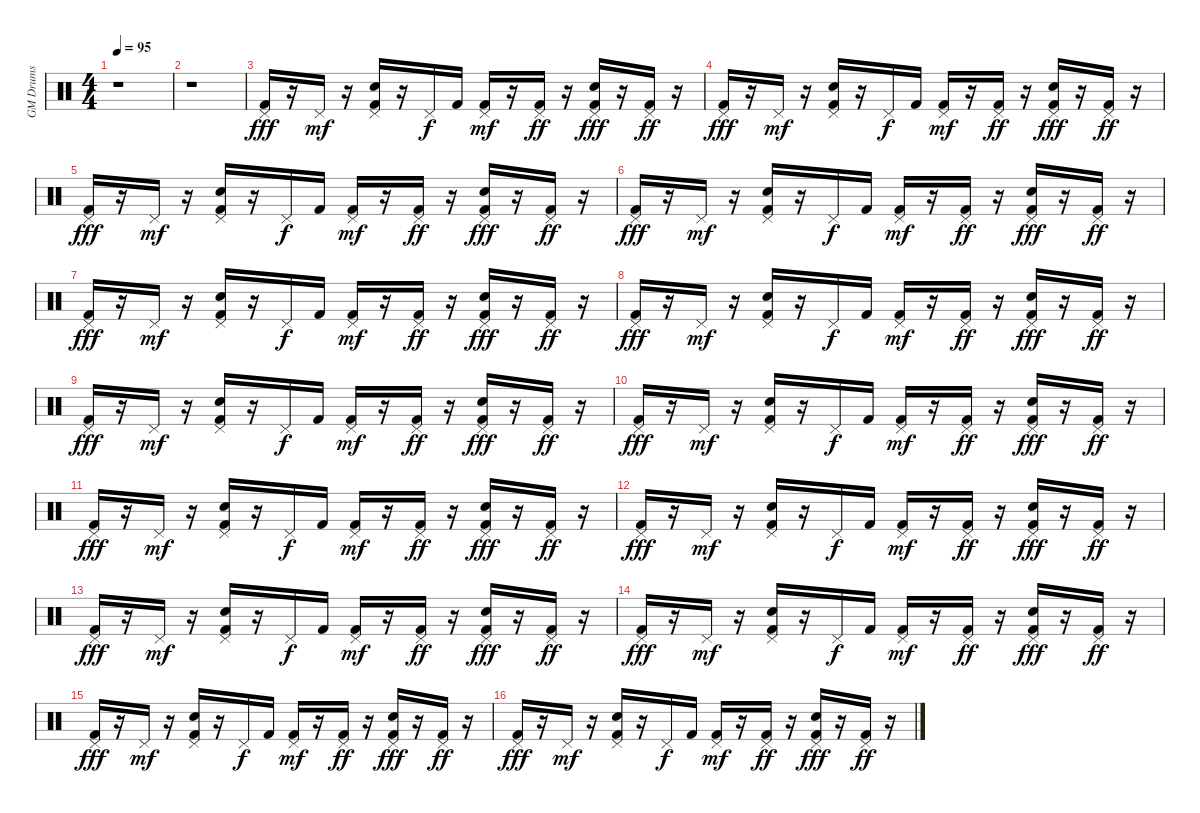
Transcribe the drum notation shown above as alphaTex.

\track ("GM Drums" "GM Drums") {instrument percussion}
\staff {score}
\articulation defaults
\ts (4 4)
\tempo 95
\clef neutral
\ks c
r.1{dy f} |
r.1 |
("Kick (hit) 2" "Pedal Hi-Hat (hit)").16{dy fff} r.16 "Pedal Hi-Hat (hit)".16{dy mf} r.16 ("Kick (hit) 2" "Hand Clap (hit)" "Pedal Hi-Hat (hit)").16 r.16 "Pedal Hi-Hat (hit)".16{dy f} "Kick (hit) 2".16 ("Kick (hit) 2" "Pedal Hi-Hat (hit)").16{dy mf} r.16 ("Kick (hit) 2" "Pedal Hi-Hat (hit)").16{dy ff} r.16 ("Kick (hit) 2" "Hand Clap (hit)" "Pedal Hi-Hat (hit)").16{dy fff} r.16 ("Kick (hit) 2" "Pedal Hi-Hat (hit)").16{dy ff} r.16 |
("Kick (hit) 2" "Pedal Hi-Hat (hit)").16{dy fff} r.16 "Pedal Hi-Hat (hit)".16{dy mf} r.16 ("Kick (hit) 2" "Hand Clap (hit)" "Pedal Hi-Hat (hit)").16 r.16 "Pedal Hi-Hat (hit)".16{dy f} "Kick (hit) 2".16 ("Kick (hit) 2" "Pedal Hi-Hat (hit)").16{dy mf} r.16 ("Kick (hit) 2" "Pedal Hi-Hat (hit)").16{dy ff} r.16 ("Kick (hit) 2" "Hand Clap (hit)" "Pedal Hi-Hat (hit)").16{dy fff} r.16 ("Kick (hit) 2" "Pedal Hi-Hat (hit)").16{dy ff} r.16 |
("Kick (hit) 2" "Pedal Hi-Hat (hit)").16{dy fff} r.16 "Pedal Hi-Hat (hit)".16{dy mf} r.16 ("Kick (hit) 2" "Hand Clap (hit)" "Pedal Hi-Hat (hit)").16 r.16 "Pedal Hi-Hat (hit)".16{dy f} "Kick (hit) 2".16 ("Kick (hit) 2" "Pedal Hi-Hat (hit)").16{dy mf} r.16 ("Kick (hit) 2" "Pedal Hi-Hat (hit)").16{dy ff} r.16 ("Kick (hit) 2" "Hand Clap (hit)" "Pedal Hi-Hat (hit)").16{dy fff} r.16 ("Kick (hit) 2" "Pedal Hi-Hat (hit)").16{dy ff} r.16 |
("Kick (hit) 2" "Pedal Hi-Hat (hit)").16{dy fff} r.16 "Pedal Hi-Hat (hit)".16{dy mf} r.16 ("Kick (hit) 2" "Hand Clap (hit)" "Pedal Hi-Hat (hit)").16 r.16 "Pedal Hi-Hat (hit)".16{dy f} "Kick (hit) 2".16 ("Kick (hit) 2" "Pedal Hi-Hat (hit)").16{dy mf} r.16 ("Kick (hit) 2" "Pedal Hi-Hat (hit)").16{dy ff} r.16 ("Kick (hit) 2" "Hand Clap (hit)" "Pedal Hi-Hat (hit)").16{dy fff} r.16 ("Kick (hit) 2" "Pedal Hi-Hat (hit)").16{dy ff} r.16 |
("Kick (hit) 2" "Pedal Hi-Hat (hit)").16{dy fff} r.16 "Pedal Hi-Hat (hit)".16{dy mf} r.16 ("Kick (hit) 2" "Hand Clap (hit)" "Pedal Hi-Hat (hit)").16 r.16 "Pedal Hi-Hat (hit)".16{dy f} "Kick (hit) 2".16 ("Kick (hit) 2" "Pedal Hi-Hat (hit)").16{dy mf} r.16 ("Kick (hit) 2" "Pedal Hi-Hat (hit)").16{dy ff} r.16 ("Kick (hit) 2" "Hand Clap (hit)" "Pedal Hi-Hat (hit)").16{dy fff} r.16 ("Kick (hit) 2" "Pedal Hi-Hat (hit)").16{dy ff} r.16 |
("Kick (hit) 2" "Pedal Hi-Hat (hit)").16{dy fff} r.16 "Pedal Hi-Hat (hit)".16{dy mf} r.16 ("Kick (hit) 2" "Hand Clap (hit)" "Pedal Hi-Hat (hit)").16 r.16 "Pedal Hi-Hat (hit)".16{dy f} "Kick (hit) 2".16 ("Kick (hit) 2" "Pedal Hi-Hat (hit)").16{dy mf} r.16 ("Kick (hit) 2" "Pedal Hi-Hat (hit)").16{dy ff} r.16 ("Kick (hit) 2" "Hand Clap (hit)" "Pedal Hi-Hat (hit)").16{dy fff} r.16 ("Kick (hit) 2" "Pedal Hi-Hat (hit)").16{dy ff} r.16 |
("Kick (hit) 2" "Pedal Hi-Hat (hit)").16{dy fff} r.16 "Pedal Hi-Hat (hit)".16{dy mf} r.16 ("Kick (hit) 2" "Hand Clap (hit)" "Pedal Hi-Hat (hit)").16 r.16 "Pedal Hi-Hat (hit)".16{dy f} "Kick (hit) 2".16 ("Kick (hit) 2" "Pedal Hi-Hat (hit)").16{dy mf} r.16 ("Kick (hit) 2" "Pedal Hi-Hat (hit)").16{dy ff} r.16 ("Kick (hit) 2" "Hand Clap (hit)" "Pedal Hi-Hat (hit)").16{dy fff} r.16 ("Kick (hit) 2" "Pedal Hi-Hat (hit)").16{dy ff} r.16 |
("Kick (hit) 2" "Pedal Hi-Hat (hit)").16{dy fff} r.16 "Pedal Hi-Hat (hit)".16{dy mf} r.16 ("Kick (hit) 2" "Hand Clap (hit)" "Pedal Hi-Hat (hit)").16 r.16 "Pedal Hi-Hat (hit)".16{dy f} "Kick (hit) 2".16 ("Kick (hit) 2" "Pedal Hi-Hat (hit)").16{dy mf} r.16 ("Kick (hit) 2" "Pedal Hi-Hat (hit)").16{dy ff} r.16 ("Kick (hit) 2" "Hand Clap (hit)" "Pedal Hi-Hat (hit)").16{dy fff} r.16 ("Kick (hit) 2" "Pedal Hi-Hat (hit)").16{dy ff} r.16 |
("Kick (hit) 2" "Pedal Hi-Hat (hit)").16{dy fff} r.16 "Pedal Hi-Hat (hit)".16{dy mf} r.16 ("Kick (hit) 2" "Hand Clap (hit)" "Pedal Hi-Hat (hit)").16 r.16 "Pedal Hi-Hat (hit)".16{dy f} "Kick (hit) 2".16 ("Kick (hit) 2" "Pedal Hi-Hat (hit)").16{dy mf} r.16 ("Kick (hit) 2" "Pedal Hi-Hat (hit)").16{dy ff} r.16 ("Kick (hit) 2" "Hand Clap (hit)" "Pedal Hi-Hat (hit)").16{dy fff} r.16 ("Kick (hit) 2" "Pedal Hi-Hat (hit)").16{dy ff} r.16 |
("Kick (hit) 2" "Pedal Hi-Hat (hit)").16{dy fff} r.16 "Pedal Hi-Hat (hit)".16{dy mf} r.16 ("Kick (hit) 2" "Hand Clap (hit)" "Pedal Hi-Hat (hit)").16 r.16 "Pedal Hi-Hat (hit)".16{dy f} "Kick (hit) 2".16 ("Kick (hit) 2" "Pedal Hi-Hat (hit)").16{dy mf} r.16 ("Kick (hit) 2" "Pedal Hi-Hat (hit)").16{dy ff} r.16 ("Kick (hit) 2" "Hand Clap (hit)" "Pedal Hi-Hat (hit)").16{dy fff} r.16 ("Kick (hit) 2" "Pedal Hi-Hat (hit)").16{dy ff} r.16 |
("Kick (hit) 2" "Pedal Hi-Hat (hit)").16{dy fff} r.16 "Pedal Hi-Hat (hit)".16{dy mf} r.16 ("Kick (hit) 2" "Hand Clap (hit)" "Pedal Hi-Hat (hit)").16 r.16 "Pedal Hi-Hat (hit)".16{dy f} "Kick (hit) 2".16 ("Kick (hit) 2" "Pedal Hi-Hat (hit)").16{dy mf} r.16 ("Kick (hit) 2" "Pedal Hi-Hat (hit)").16{dy ff} r.16 ("Kick (hit) 2" "Hand Clap (hit)" "Pedal Hi-Hat (hit)").16{dy fff} r.16 ("Kick (hit) 2" "Pedal Hi-Hat (hit)").16{dy ff} r.16 |
("Kick (hit) 2" "Pedal Hi-Hat (hit)").16{dy fff} r.16 "Pedal Hi-Hat (hit)".16{dy mf} r.16 ("Kick (hit) 2" "Hand Clap (hit)" "Pedal Hi-Hat (hit)").16 r.16 "Pedal Hi-Hat (hit)".16{dy f} "Kick (hit) 2".16 ("Kick (hit) 2" "Pedal Hi-Hat (hit)").16{dy mf} r.16 ("Kick (hit) 2" "Pedal Hi-Hat (hit)").16{dy ff} r.16 ("Kick (hit) 2" "Hand Clap (hit)" "Pedal Hi-Hat (hit)").16{dy fff} r.16 ("Kick (hit) 2" "Pedal Hi-Hat (hit)").16{dy ff} r.16 |
("Kick (hit) 2" "Pedal Hi-Hat (hit)").16{dy fff} r.16 "Pedal Hi-Hat (hit)".16{dy mf} r.16 ("Kick (hit) 2" "Hand Clap (hit)" "Pedal Hi-Hat (hit)").16 r.16 "Pedal Hi-Hat (hit)".16{dy f} "Kick (hit) 2".16 ("Kick (hit) 2" "Pedal Hi-Hat (hit)").16{dy mf} r.16 ("Kick (hit) 2" "Pedal Hi-Hat (hit)").16{dy ff} r.16 ("Kick (hit) 2" "Hand Clap (hit)" "Pedal Hi-Hat (hit)").16{dy fff} r.16 ("Kick (hit) 2" "Pedal Hi-Hat (hit)").16{dy ff} r.16 |
("Kick (hit) 2" "Pedal Hi-Hat (hit)").16{dy fff} r.16 "Pedal Hi-Hat (hit)".16{dy mf} r.16 ("Kick (hit) 2" "Hand Clap (hit)" "Pedal Hi-Hat (hit)").16 r.16 "Pedal Hi-Hat (hit)".16{dy f} "Kick (hit) 2".16 ("Kick (hit) 2" "Pedal Hi-Hat (hit)").16{dy mf} r.16 ("Kick (hit) 2" "Pedal Hi-Hat (hit)").16{dy ff} r.16 ("Kick (hit) 2" "Hand Clap (hit)" "Pedal Hi-Hat (hit)").16{dy fff} r.16 ("Kick (hit) 2" "Pedal Hi-Hat (hit)").16{dy ff} r.16
